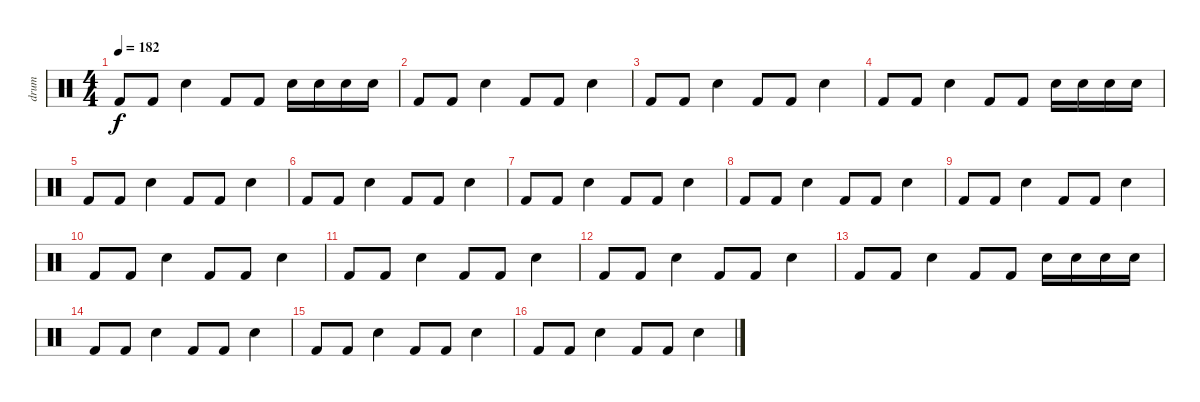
\track ("drum" "drum") {instrument percussion}
\staff {score}
\articulation defaults
\ts (4 4)
\tempo 182
\clef neutral
\ks c "Kick (hit) 2".8{dy f} "Kick (hit) 2".8 "Electric Snare (hit)".4 "Kick (hit) 2".8 "Kick (hit) 2".8 "Electric Snare (hit)".16 "Electric Snare (hit)".16 "Electric Snare (hit)".16 "Electric Snare (hit)".16
|
"Kick (hit) 2".8 "Kick (hit) 2".8 "Electric Snare (hit)".4 "Kick (hit) 2".8 "Kick (hit) 2".8 "Electric Snare (hit)".4 |
"Kick (hit) 2".8 "Kick (hit) 2".8 "Electric Snare (hit)".4 "Kick (hit) 2".8 "Kick (hit) 2".8 "Electric Snare (hit)".4 |
"Kick (hit) 2".8 "Kick (hit) 2".8 "Electric Snare (hit)".4 "Kick (hit) 2".8 "Kick (hit) 2".8 "Electric Snare (hit)".16 "Electric Snare (hit)".16 "Electric Snare (hit)".16 "Electric Snare (hit)".16 |
"Kick (hit) 2".8 "Kick (hit) 2".8 "Electric Snare (hit)".4 "Kick (hit) 2".8 "Kick (hit) 2".8 "Electric Snare (hit)".4 |
"Kick (hit) 2".8 "Kick (hit) 2".8 "Electric Snare (hit)".4 "Kick (hit) 2".8 "Kick (hit) 2".8 "Electric Snare (hit)".4 |
"Kick (hit) 2".8 "Kick (hit) 2".8 "Electric Snare (hit)".4 "Kick (hit) 2".8 "Kick (hit) 2".8 "Electric Snare (hit)".4 |
"Kick (hit) 2".8 "Kick (hit) 2".8 "Electric Snare (hit)".4 "Kick (hit) 2".8 "Kick (hit) 2".8 "Electric Snare (hit)".4 |
"Kick (hit) 2".8 "Kick (hit) 2".8 "Electric Snare (hit)".4 "Kick (hit) 2".8 "Kick (hit) 2".8 "Electric Snare (hit)".4 |
"Kick (hit) 2".8 "Kick (hit) 2".8 "Electric Snare (hit)".4 "Kick (hit) 2".8 "Kick (hit) 2".8 "Electric Snare (hit)".4 |
"Kick (hit) 2".8 "Kick (hit) 2".8 "Electric Snare (hit)".4 "Kick (hit) 2".8 "Kick (hit) 2".8 "Electric Snare (hit)".4 |
"Kick (hit) 2".8 "Kick (hit) 2".8 "Electric Snare (hit)".4 "Kick (hit) 2".8 "Kick (hit) 2".8 "Electric Snare (hit)".4 |
"Kick (hit) 2".8 "Kick (hit) 2".8 "Electric Snare (hit)".4 "Kick (hit) 2".8 "Kick (hit) 2".8 "Electric Snare (hit)".16 "Electric Snare (hit)".16 "Electric Snare (hit)".16 "Electric Snare (hit)".16 |
"Kick (hit) 2".8 "Kick (hit) 2".8 "Electric Snare (hit)".4 "Kick (hit) 2".8 "Kick (hit) 2".8 "Electric Snare (hit)".4 |
"Kick (hit) 2".8 "Kick (hit) 2".8 "Electric Snare (hit)".4 "Kick (hit) 2".8 "Kick (hit) 2".8 "Electric Snare (hit)".4 |
"Kick (hit) 2".8 "Kick (hit) 2".8 "Electric Snare (hit)".4 "Kick (hit) 2".8 "Kick (hit) 2".8 "Electric Snare (hit)".4
